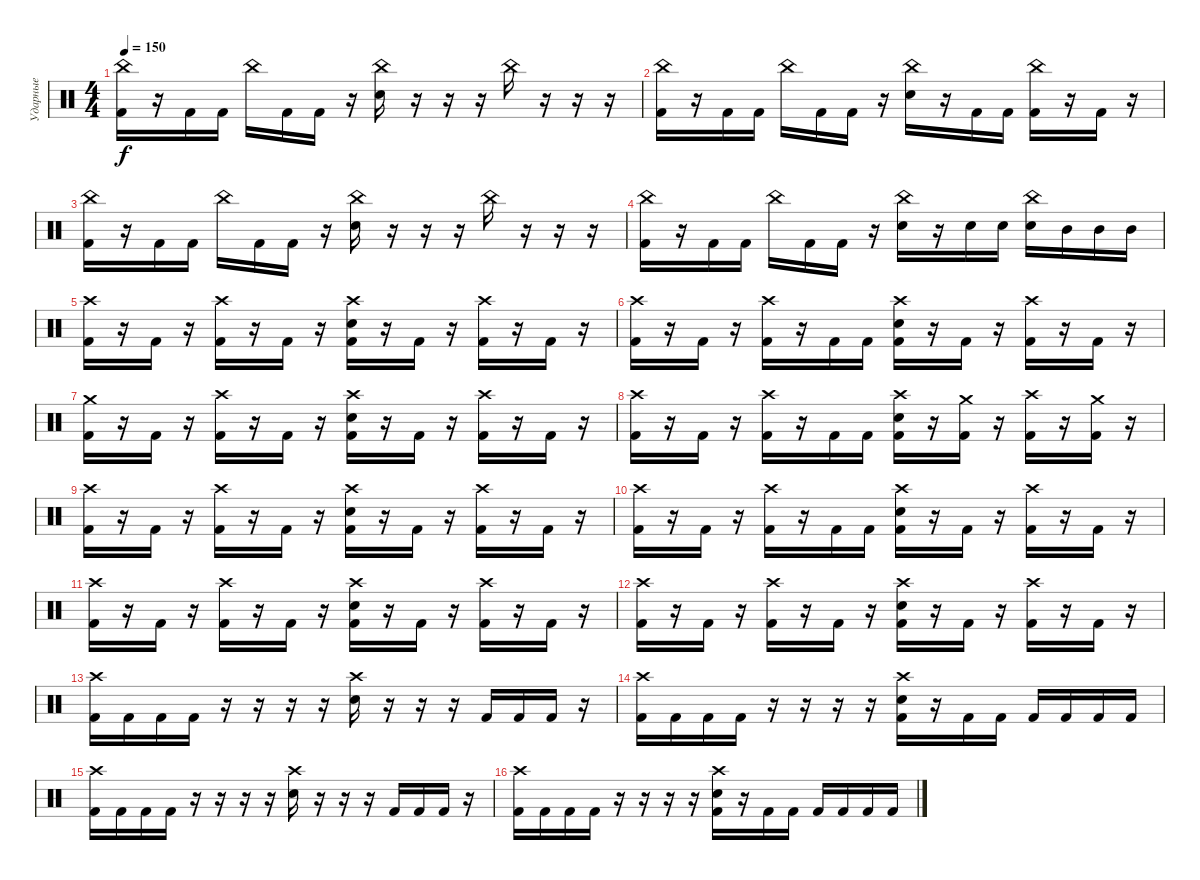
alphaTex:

\track ("Ударные" "Ударные") {instrument percussion}
\staff {score}
\articulation defaults
\ts (4 4)
\tempo 150
\clef neutral
\ks c
("China (hit)" "Kick (hit) 2").16{dy f} r.16 "Kick (hit) 2".16 "Kick (hit) 2".16 "China (hit)".16 "Kick (hit) 2".16 "Kick (hit) 2".16 r.16 ("China (hit)" "Electric Snare (hit)").16 r.16 r.16 r.16 "China (hit)".16 r.16 r.16 r.16 |
("China (hit)" "Kick (hit) 2").16 r.16 "Kick (hit) 2".16 "Kick (hit) 2".16 "China (hit)".16 "Kick (hit) 2".16 "Kick (hit) 2".16 r.16 ("China (hit)" "Electric Snare (hit)").16 r.16 "Kick (hit) 2".16 "Kick (hit) 2".16 ("China (hit)" "Kick (hit) 2").16 r.16 "Kick (hit) 2".16 r.16 |
("China (hit)" "Kick (hit) 2").16 r.16 "Kick (hit) 2".16 "Kick (hit) 2".16 "China (hit)".16 "Kick (hit) 2".16 "Kick (hit) 2".16 r.16 ("China (hit)" "Electric Snare (hit)").16 r.16 r.16 r.16 "China (hit)".16 r.16 r.16 r.16 |
("China (hit)" "Kick (hit) 2").16 r.16 "Kick (hit) 2".16 "Kick (hit) 2".16 "China (hit)".16 "Kick (hit) 2".16 "Kick (hit) 2".16 r.16 ("China (hit)" "Electric Snare (hit)").16 r.16 "Electric Snare (hit)".16 "Electric Snare (hit)".16 ("China (hit)" "Electric Snare (hit)").16 "Mid Tom (hit)".16 "Mid Tom (hit)".16 "Mid Tom (hit)".16 |
("Crash high (hit)" "Kick (hit) 2").16 r.16 "Kick (hit) 2".16 r.16 ("Crash high (hit)" "Kick (hit) 2").16 r.16 "Kick (hit) 2".16 r.16 ("Crash high (hit)" "Electric Snare (hit)" "Kick (hit) 2").16 r.16 "Kick (hit) 2".16 r.16 ("Crash high (hit)" "Kick (hit) 2").16 r.16 "Kick (hit) 2".16 r.16 |
("Crash high (hit)" "Kick (hit) 2").16 r.16 "Kick (hit) 2".16 r.16 ("Crash high (hit)" "Kick (hit) 2").16 r.16 "Kick (hit) 2".16 "Kick (hit) 2".16 ("Crash high (hit)" "Electric Snare (hit)" "Kick (hit) 2").16 r.16 "Kick (hit) 2".16 r.16 ("Crash high (hit)" "Kick (hit) 2").16 r.16 "Kick (hit) 2".16 r.16 |
("Crash medium (hit)" "Kick (hit) 2").16 r.16 "Kick (hit) 2".16 r.16 ("Crash high (hit)" "Kick (hit) 2").16 r.16 "Kick (hit) 2".16 r.16 ("Crash high (hit)" "Electric Snare (hit)" "Kick (hit) 2").16 r.16 "Kick (hit) 2".16 r.16 ("Crash high (hit)" "Kick (hit) 2").16 r.16 "Kick (hit) 2".16 r.16 |
("Crash high (hit)" "Kick (hit) 2").16 r.16 "Kick (hit) 2".16 r.16 ("Crash high (hit)" "Kick (hit) 2").16 r.16 "Kick (hit) 2".16 "Kick (hit) 2".16 ("Crash high (hit)" "Electric Snare (hit)" "Kick (hit) 2").16 r.16 ("Crash medium (hit)" "Kick (hit) 2").16 r.16 ("Crash high (hit)" "Kick (hit) 2").16 r.16 ("Crash medium (hit)" "Kick (hit) 2").16 r.16 |
("Crash high (hit)" "Kick (hit) 2").16 r.16 "Kick (hit) 2".16 r.16 ("Crash high (hit)" "Kick (hit) 2").16 r.16 "Kick (hit) 2".16 r.16 ("Crash high (hit)" "Electric Snare (hit)" "Kick (hit) 2").16 r.16 "Kick (hit) 2".16 r.16 ("Crash high (hit)" "Kick (hit) 2").16 r.16 "Kick (hit) 2".16 r.16 |
("Crash high (hit)" "Kick (hit) 2").16 r.16 "Kick (hit) 2".16 r.16 ("Crash high (hit)" "Kick (hit) 2").16 r.16 "Kick (hit) 2".16 "Kick (hit) 2".16 ("Crash high (hit)" "Electric Snare (hit)" "Kick (hit) 2").16 r.16 "Kick (hit) 2".16 r.16 ("Crash high (hit)" "Kick (hit) 2").16 r.16 "Kick (hit) 2".16 r.16 |
("Crash high (hit)" "Kick (hit) 2").16 r.16 "Kick (hit) 2".16 r.16 ("Crash high (hit)" "Kick (hit) 2").16 r.16 "Kick (hit) 2".16 r.16 ("Crash high (hit)" "Electric Snare (hit)" "Kick (hit) 2").16 r.16 "Kick (hit) 2".16 r.16 ("Crash high (hit)" "Kick (hit) 2").16 r.16 "Kick (hit) 2".16 r.16 |
("Crash high (hit)" "Kick (hit) 2").16 r.16 "Kick (hit) 2".16 r.16 ("Crash high (hit)" "Kick (hit) 2").16 r.16 "Kick (hit) 2".16 r.16 ("Crash high (hit)" "Electric Snare (hit)" "Kick (hit) 2").16 r.16 "Kick (hit) 2".16 r.16 ("Crash high (hit)" "Kick (hit) 2").16 r.16 "Kick (hit) 2".16 r.16 |
("Crash high (hit)" "Kick (hit) 2").16 "Kick (hit) 2".16 "Kick (hit) 2".16 "Kick (hit) 2".16 r.16 r.16 r.16 r.16 ("Crash high (hit)" "Electric Snare (hit)").16 r.16 r.16 r.16 "Kick (hit) 2".16 "Kick (hit) 2".16 "Kick (hit) 2".16 r.16 |
("Crash high (hit)" "Kick (hit) 2").16 "Kick (hit) 2".16 "Kick (hit) 2".16 "Kick (hit) 2".16 r.16 r.16 r.16 r.16 ("Crash high (hit)" "Electric Snare (hit)" "Kick (hit) 2").16 r.16 "Kick (hit) 2".16 "Kick (hit) 2".16 "Kick (hit) 2".16 "Kick (hit) 2".16 "Kick (hit) 2".16 "Kick (hit) 2".16 |
("Crash high (hit)" "Kick (hit) 2").16 "Kick (hit) 2".16 "Kick (hit) 2".16 "Kick (hit) 2".16 r.16 r.16 r.16 r.16 ("Crash high (hit)" "Electric Snare (hit)").16 r.16 r.16 r.16 "Kick (hit) 2".16 "Kick (hit) 2".16 "Kick (hit) 2".16 r.16 |
("Crash high (hit)" "Kick (hit) 2").16 "Kick (hit) 2".16 "Kick (hit) 2".16 "Kick (hit) 2".16 r.16 r.16 r.16 r.16 ("Crash high (hit)" "Electric Snare (hit)" "Kick (hit) 2").16 r.16 "Kick (hit) 2".16 "Kick (hit) 2".16 "Kick (hit) 2".16 "Kick (hit) 2".16 "Kick (hit) 2".16 "Kick (hit) 2".16
